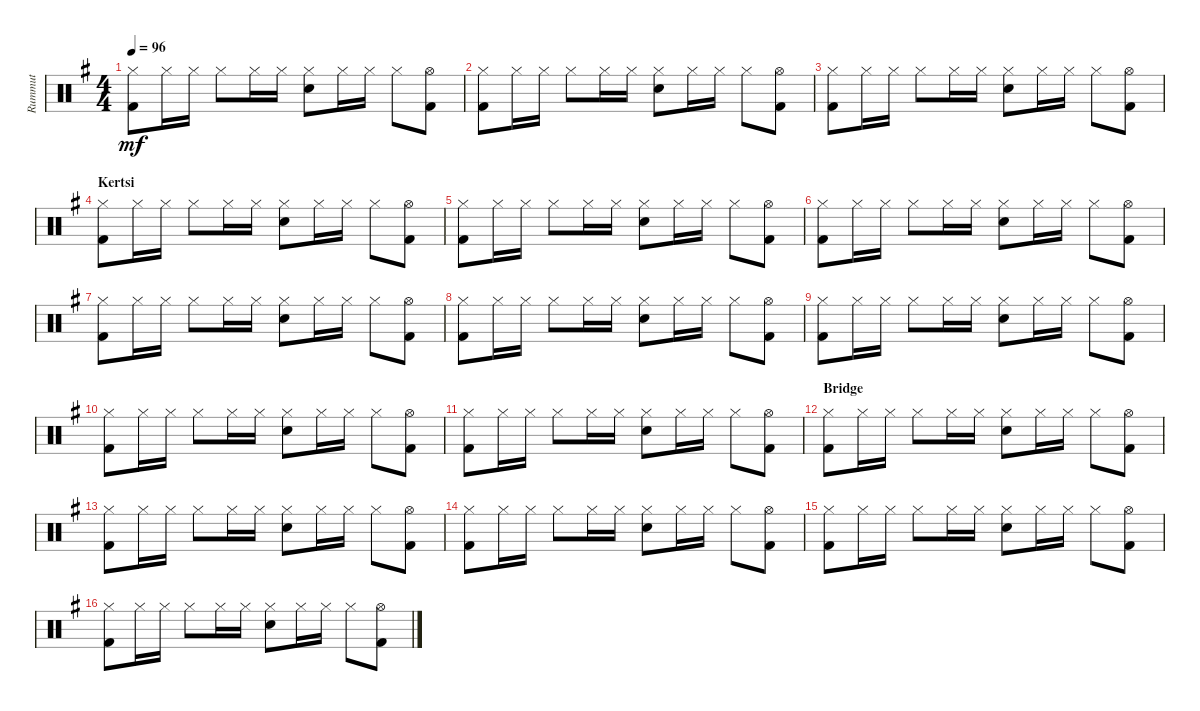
\track ("Rummut" "Rummut") {instrument percussion}
\staff {score}
\articulation defaults
\ts (4 4)
\tempo 96
\clef neutral
\ks g
("Kick (hit) 2" "Hi-Hat (closed)").8{dy mf} "Hi-Hat (closed)".16 "Hi-Hat (closed)".16 "Hi-Hat (closed)".8 "Hi-Hat (closed)".16 "Hi-Hat (closed)".16 ("Hi-Hat (closed)" "Snare (hit) 2").8 "Hi-Hat (closed)".16 "Hi-Hat (closed)".16 "Hi-Hat (closed)".8 ("Kick (hit) 2" "Hi-Hat (open)").8 |
("Kick (hit) 2" "Hi-Hat (closed)").8 "Hi-Hat (closed)".16 "Hi-Hat (closed)".16 "Hi-Hat (closed)".8 "Hi-Hat (closed)".16 "Hi-Hat (closed)".16 ("Hi-Hat (closed)" "Snare (hit) 2").8 "Hi-Hat (closed)".16 "Hi-Hat (closed)".16 "Hi-Hat (closed)".8 ("Kick (hit) 2" "Hi-Hat (open)").8 |
("Kick (hit) 2" "Hi-Hat (closed)").8 "Hi-Hat (closed)".16 "Hi-Hat (closed)".16 "Hi-Hat (closed)".8 "Hi-Hat (closed)".16 "Hi-Hat (closed)".16 ("Hi-Hat (closed)" "Snare (hit) 2").8 "Hi-Hat (closed)".16 "Hi-Hat (closed)".16 "Hi-Hat (closed)".8 ("Kick (hit) 2" "Hi-Hat (open)").8 |
\section ("" "Kertsi")
("Kick (hit) 2" "Hi-Hat (closed)").8 "Hi-Hat (closed)".16 "Hi-Hat (closed)".16 "Hi-Hat (closed)".8 "Hi-Hat (closed)".16 "Hi-Hat (closed)".16 ("Hi-Hat (closed)" "Snare (hit) 2").8 "Hi-Hat (closed)".16 "Hi-Hat (closed)".16 "Hi-Hat (closed)".8 ("Kick (hit) 2" "Hi-Hat (open)").8 |
("Kick (hit) 2" "Hi-Hat (closed)").8 "Hi-Hat (closed)".16 "Hi-Hat (closed)".16 "Hi-Hat (closed)".8 "Hi-Hat (closed)".16 "Hi-Hat (closed)".16 ("Hi-Hat (closed)" "Snare (hit) 2").8 "Hi-Hat (closed)".16 "Hi-Hat (closed)".16 "Hi-Hat (closed)".8 ("Kick (hit) 2" "Hi-Hat (open)").8 |
("Kick (hit) 2" "Hi-Hat (closed)").8 "Hi-Hat (closed)".16 "Hi-Hat (closed)".16 "Hi-Hat (closed)".8 "Hi-Hat (closed)".16 "Hi-Hat (closed)".16 ("Hi-Hat (closed)" "Snare (hit) 2").8 "Hi-Hat (closed)".16 "Hi-Hat (closed)".16 "Hi-Hat (closed)".8 ("Kick (hit) 2" "Hi-Hat (open)").8 |
("Kick (hit) 2" "Hi-Hat (closed)").8 "Hi-Hat (closed)".16 "Hi-Hat (closed)".16 "Hi-Hat (closed)".8 "Hi-Hat (closed)".16 "Hi-Hat (closed)".16 ("Hi-Hat (closed)" "Snare (hit) 2").8 "Hi-Hat (closed)".16 "Hi-Hat (closed)".16 "Hi-Hat (closed)".8 ("Kick (hit) 2" "Hi-Hat (open)").8 |
("Kick (hit) 2" "Hi-Hat (closed)").8 "Hi-Hat (closed)".16 "Hi-Hat (closed)".16 "Hi-Hat (closed)".8 "Hi-Hat (closed)".16 "Hi-Hat (closed)".16 ("Hi-Hat (closed)" "Snare (hit) 2").8 "Hi-Hat (closed)".16 "Hi-Hat (closed)".16 "Hi-Hat (closed)".8 ("Kick (hit) 2" "Hi-Hat (open)").8 |
("Kick (hit) 2" "Hi-Hat (closed)").8 "Hi-Hat (closed)".16 "Hi-Hat (closed)".16 "Hi-Hat (closed)".8 "Hi-Hat (closed)".16 "Hi-Hat (closed)".16 ("Hi-Hat (closed)" "Snare (hit) 2").8 "Hi-Hat (closed)".16 "Hi-Hat (closed)".16 "Hi-Hat (closed)".8 ("Kick (hit) 2" "Hi-Hat (open)").8 |
("Kick (hit) 2" "Hi-Hat (closed)").8 "Hi-Hat (closed)".16 "Hi-Hat (closed)".16 "Hi-Hat (closed)".8 "Hi-Hat (closed)".16 "Hi-Hat (closed)".16 ("Hi-Hat (closed)" "Snare (hit) 2").8 "Hi-Hat (closed)".16 "Hi-Hat (closed)".16 "Hi-Hat (closed)".8 ("Kick (hit) 2" "Hi-Hat (open)").8 |
("Kick (hit) 2" "Hi-Hat (closed)").8 "Hi-Hat (closed)".16 "Hi-Hat (closed)".16 "Hi-Hat (closed)".8 "Hi-Hat (closed)".16 "Hi-Hat (closed)".16 ("Hi-Hat (closed)" "Snare (hit) 2").8 "Hi-Hat (closed)".16 "Hi-Hat (closed)".16 "Hi-Hat (closed)".8 ("Kick (hit) 2" "Hi-Hat (open)").8 |
\section ("" "Bridge")
("Kick (hit) 2" "Hi-Hat (closed)").8 "Hi-Hat (closed)".16 "Hi-Hat (closed)".16 "Hi-Hat (closed)".8 "Hi-Hat (closed)".16 "Hi-Hat (closed)".16 ("Hi-Hat (closed)" "Snare (hit) 2").8 "Hi-Hat (closed)".16 "Hi-Hat (closed)".16 "Hi-Hat (closed)".8 ("Kick (hit) 2" "Hi-Hat (open)").8 |
("Kick (hit) 2" "Hi-Hat (closed)").8 "Hi-Hat (closed)".16 "Hi-Hat (closed)".16 "Hi-Hat (closed)".8 "Hi-Hat (closed)".16 "Hi-Hat (closed)".16 ("Hi-Hat (closed)" "Snare (hit) 2").8 "Hi-Hat (closed)".16 "Hi-Hat (closed)".16 "Hi-Hat (closed)".8 ("Kick (hit) 2" "Hi-Hat (open)").8 |
("Kick (hit) 2" "Hi-Hat (closed)").8 "Hi-Hat (closed)".16 "Hi-Hat (closed)".16 "Hi-Hat (closed)".8 "Hi-Hat (closed)".16 "Hi-Hat (closed)".16 ("Hi-Hat (closed)" "Snare (hit) 2").8 "Hi-Hat (closed)".16 "Hi-Hat (closed)".16 "Hi-Hat (closed)".8 ("Kick (hit) 2" "Hi-Hat (open)").8 |
("Kick (hit) 2" "Hi-Hat (closed)").8 "Hi-Hat (closed)".16 "Hi-Hat (closed)".16 "Hi-Hat (closed)".8 "Hi-Hat (closed)".16 "Hi-Hat (closed)".16 ("Hi-Hat (closed)" "Snare (hit) 2").8 "Hi-Hat (closed)".16 "Hi-Hat (closed)".16 "Hi-Hat (closed)".8 ("Kick (hit) 2" "Hi-Hat (open)").8 |
("Kick (hit) 2" "Hi-Hat (closed)").8 "Hi-Hat (closed)".16 "Hi-Hat (closed)".16 "Hi-Hat (closed)".8 "Hi-Hat (closed)".16 "Hi-Hat (closed)".16 ("Hi-Hat (closed)" "Snare (hit) 2").8 "Hi-Hat (closed)".16 "Hi-Hat (closed)".16 "Hi-Hat (closed)".8 ("Kick (hit) 2" "Hi-Hat (open)").8
